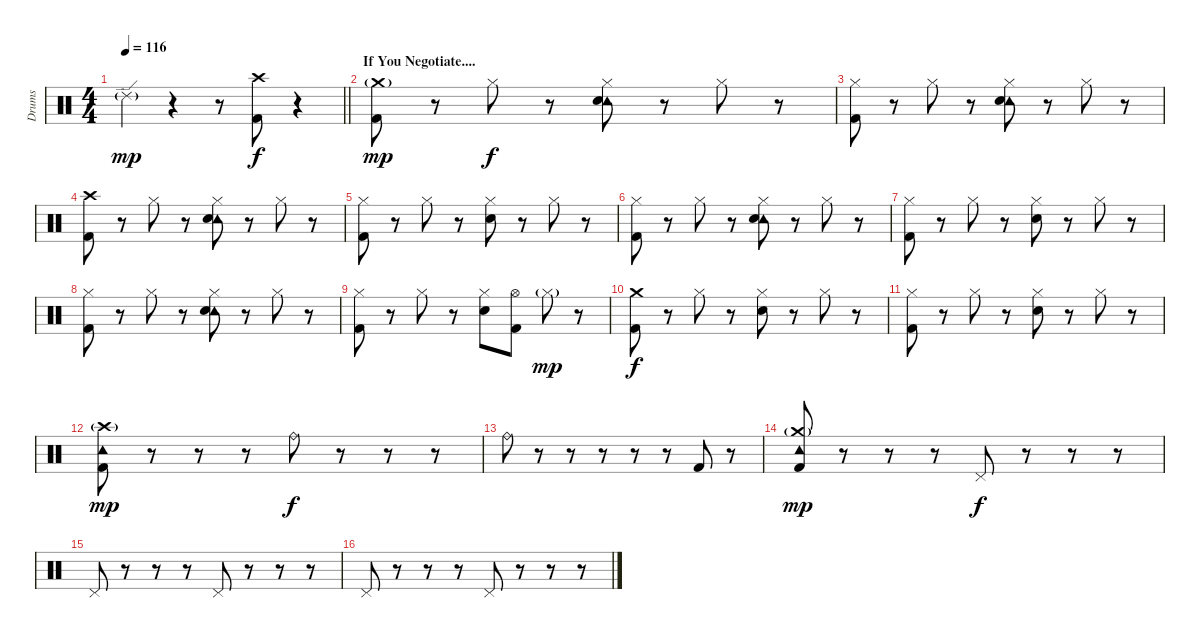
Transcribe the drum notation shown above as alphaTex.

\track ("Drums" "Drums") {instrument percussion}
\staff {score}
\articulation defaults
\ts (4 4)
\tempo 116
\clef neutral
\barLineRight lightlight
\ks c "Ride (edge) 2"{g}.4{dy mp}
r.4 r.8 ("Crash high (hit)" "Kick (hit) 2").8{dy f} r.4 |
\section ("" "If You Negotiate....")
("Crash medium (hit)"{g} "Kick (hit) 2").8{dy mp} r.8 "Hi-Hat (closed)".8{dy f} r.8 ("Tambourine (hit)" "Hi-Hat (closed)" "Snare (hit) 2").8 r.8 "Hi-Hat (closed)".8 r.8 |
("Hi-Hat (closed)" "Kick (hit) 2").8 r.8 "Hi-Hat (closed)".8 r.8 ("Tambourine (hit)" "Hi-Hat (closed)" "Snare (hit) 2").8 r.8 "Hi-Hat (closed)".8 r.8 |
("Crash high (hit)" "Kick (hit) 2").8 r.8 "Hi-Hat (closed)".8 r.8 ("Tambourine (hit)" "Hi-Hat (closed)" "Snare (hit) 2").8 r.8 "Hi-Hat (closed)".8 r.8 |
("Hi-Hat (closed)" "Kick (hit) 2").8 r.8 "Hi-Hat (closed)".8 r.8 ("Hi-Hat (closed)" "Snare (hit) 2").8 r.8 "Hi-Hat (closed)".8 r.8 |
("Hi-Hat (closed)" "Kick (hit) 2").8 r.8 "Hi-Hat (closed)".8 r.8 ("Tambourine (hit)" "Hi-Hat (closed)" "Snare (hit) 2").8 r.8 "Hi-Hat (closed)".8 r.8 |
("Hi-Hat (closed)" "Kick (hit) 2").8 r.8 "Hi-Hat (closed)".8 r.8 ("Hi-Hat (closed)" "Snare (hit) 2").8 r.8 "Hi-Hat (closed)".8 r.8 |
("Hi-Hat (closed)" "Kick (hit) 2").8 r.8 "Hi-Hat (closed)".8 r.8 ("Tambourine (hit)" "Hi-Hat (closed)" "Snare (hit) 2").8 r.8 "Hi-Hat (closed)".8 r.8 |
("Hi-Hat (closed)" "Kick (hit) 2").8 r.8 "Hi-Hat (closed)".8 r.8 ("Hi-Hat (closed)" "Snare (hit) 2").8 ("Hi-Hat (open)" "Kick (hit) 2").8 "Hi-Hat (closed)"{g}.8{dy mp} r.8 |
("Crash medium (hit)" "Kick (hit) 2").8{dy f} r.8 "Hi-Hat (closed)".8 r.8 ("Hi-Hat (closed)" "Snare (hit) 2").8 r.8 "Hi-Hat (closed)".8 r.8 |
("Hi-Hat (closed)" "Kick (hit) 2").8 r.8 "Hi-Hat (closed)".8 r.8 ("Hi-Hat (closed)" "Snare (hit) 2").8 r.8 "Hi-Hat (closed)".8 r.8 |
("Crash high (hit)"{g} "Tambourine (hit)" "Kick (hit) 2").8{dy mp} r.8 r.8 r.8 "Ride (bell)".8{dy f} r.8 r.8 r.8 |
"Ride (bell)".8 r.8 r.8 r.8 r.8 r.8 "Kick (hit) 2".8 r.8 |
("Crash medium (hit)"{g} "Tambourine (hit)" "Kick (hit) 2").8{dy mp} r.8 r.8 r.8 "Pedal Hi-Hat (hit)".8{dy f} r.8 r.8 r.8 |
"Pedal Hi-Hat (hit)".8 r.8 r.8 r.8 "Pedal Hi-Hat (hit)".8 r.8 r.8 r.8 |
"Pedal Hi-Hat (hit)".8 r.8 r.8 r.8 "Pedal Hi-Hat (hit)".8 r.8 r.8 r.8
